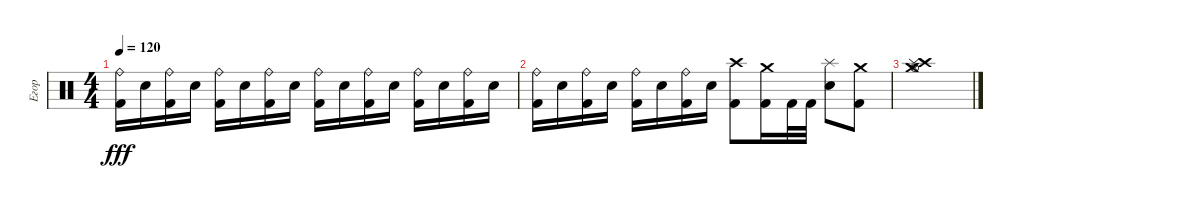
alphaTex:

\track ("Егор" "Егор") {instrument percussion}
\staff {score}
\articulation defaults
\ts (4 4)
\tempo 120
\clef neutral
\ks c
("Ride (bell)" "Kick (hit) 2").16{dy fff} "Snare (hit) 2".16 ("Ride (bell)" "Kick (hit) 2").16 "Snare (hit) 2".16 ("Ride (bell)" "Kick (hit) 2").16 "Snare (hit) 2".16 ("Ride (bell)" "Kick (hit) 2").16 "Snare (hit) 2".16 ("Ride (bell)" "Kick (hit) 2").16 "Snare (hit) 2".16 ("Ride (bell)" "Kick (hit) 2").16 "Snare (hit) 2".16 ("Ride (bell)" "Kick (hit) 2").16 "Snare (hit) 2".16 ("Ride (bell)" "Kick (hit) 2").16 "Snare (hit) 2".16 |
("Ride (bell)" "Kick (hit) 2").16 "Snare (hit) 2".16 ("Ride (bell)" "Kick (hit) 2").16 "Snare (hit) 2".16 ("Ride (bell)" "Kick (hit) 2").16 "Snare (hit) 2".16 ("Ride (bell)" "Kick (hit) 2").16 "Snare (hit) 2".16 ("Crash high (hit)" "Kick (hit) 2").8 ("Crash medium (hit)" "Kick (hit) 2").16 "Kick (hit) 2".32 "Kick (hit) 2".32 ("Splash (hit)" "Snare (hit) 2").8 ("Crash medium (hit)" "Kick (hit) 2").8 |
("Crash high (hit)" "Crash medium (hit)" "Hi-Hat (open)" "Splash (hit)").1
